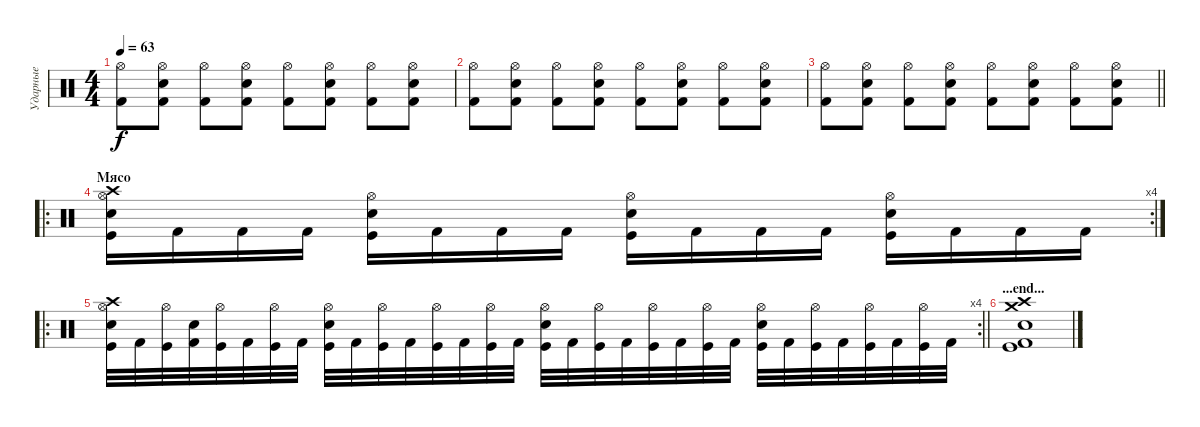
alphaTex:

\track ("Ударные" "Ударные") {instrument percussion}
\staff {score}
\articulation defaults
\ts (4 4)
\tempo 63
\clef neutral
\ks c
("Hi-Hat (open)" "Kick (hit) 2").8{dy f} ("Hi-Hat (open)" "Snare (hit) 2" "Kick (hit) 2").8 ("Hi-Hat (open)" "Kick (hit) 2").8 ("Hi-Hat (open)" "Snare (hit) 2" "Kick (hit) 2").8 ("Hi-Hat (open)" "Kick (hit) 2").8 ("Hi-Hat (open)" "Snare (hit) 2" "Kick (hit) 2").8 ("Hi-Hat (open)" "Kick (hit) 2").8 ("Hi-Hat (open)" "Snare (hit) 2" "Kick (hit) 2").8 |
("Hi-Hat (open)" "Kick (hit) 2").8 ("Hi-Hat (open)" "Snare (hit) 2" "Kick (hit) 2").8 ("Hi-Hat (open)" "Kick (hit) 2").8 ("Hi-Hat (open)" "Snare (hit) 2" "Kick (hit) 2").8 ("Hi-Hat (open)" "Kick (hit) 2").8 ("Hi-Hat (open)" "Snare (hit) 2" "Kick (hit) 2").8 ("Hi-Hat (open)" "Kick (hit) 2").8 ("Hi-Hat (open)" "Snare (hit) 2" "Kick (hit) 2").8 |
\barLineRight lightlight
("Hi-Hat (open)" "Kick (hit) 2").8 ("Hi-Hat (open)" "Snare (hit) 2" "Kick (hit) 2").8 ("Hi-Hat (open)" "Kick (hit) 2").8 ("Hi-Hat (open)" "Snare (hit) 2" "Kick (hit) 2").8 ("Hi-Hat (open)" "Kick (hit) 2").8 ("Hi-Hat (open)" "Snare (hit) 2" "Kick (hit) 2").8 ("Hi-Hat (open)" "Kick (hit) 2").8 ("Hi-Hat (open)" "Snare (hit) 2" "Kick (hit) 2").8 |
\ro
\rc 4
\section ("" "Мясо")
("Electric Snare (hit)" "Crash high (hit)" "Hi-Hat (open)" "Kick (hit)").16 "Kick (hit) 2".16 "Kick (hit) 2".16 "Kick (hit) 2".16 ("Electric Snare (hit)" "Hi-Hat (open)" "Kick (hit)").16 "Kick (hit) 2".16 "Kick (hit) 2".16 "Kick (hit) 2".16 ("Electric Snare (hit)" "Hi-Hat (open)" "Kick (hit)").16 "Kick (hit) 2".16 "Kick (hit) 2".16 "Kick (hit) 2".16 ("Electric Snare (hit)" "Hi-Hat (open)" "Kick (hit)").16 "Kick (hit) 2".16 "Kick (hit) 2".16 "Kick (hit) 2".16 |
\ro
\rc 4
\barLineRight lightlight
("Electric Snare (hit)" "Crash high (hit)" "Hi-Hat (open)" "Kick (hit)").32 "Kick (hit) 2".32 ("Hi-Hat (open)" "Kick (hit)").32 ("Snare (hit)" "Kick (hit) 2").32 ("Hi-Hat (open)" "Kick (hit)").32 "Kick (hit) 2".32 ("Hi-Hat (open)" "Kick (hit)").32 "Kick (hit) 2".32 ("Electric Snare (hit)" "Hi-Hat (open)" "Kick (hit)").32 "Kick (hit) 2".32 ("Hi-Hat (open)" "Kick (hit)").32 "Kick (hit) 2".32 ("Hi-Hat (open)" "Kick (hit)").32 "Kick (hit) 2".32 ("Hi-Hat (open)" "Kick (hit)").32 "Kick (hit) 2".32 ("Electric Snare (hit)" "Hi-Hat (open)" "Kick (hit)").32 "Kick (hit) 2".32 ("Hi-Hat (open)" "Kick (hit)").32 "Kick (hit) 2".32 ("Hi-Hat (open)" "Kick (hit)").32 "Kick (hit) 2".32 ("Hi-Hat (open)" "Kick (hit)").32 "Kick (hit) 2".32 ("Electric Snare (hit)" "Hi-Hat (open)" "Kick (hit)").32 "Kick (hit) 2".32 ("Hi-Hat (open)" "Kick (hit)").32 "Kick (hit) 2".32 ("Hi-Hat (open)" "Kick (hit)").32 "Kick (hit) 2".32 ("Hi-Hat (open)" "Kick (hit)").32 "Kick (hit) 2".32 |
\section ("" "...end...")
("Crash medium (hit)" "Crash high (hit)" "Electric Snare (hit)" "Kick (hit)" "Kick (hit) 2").1
